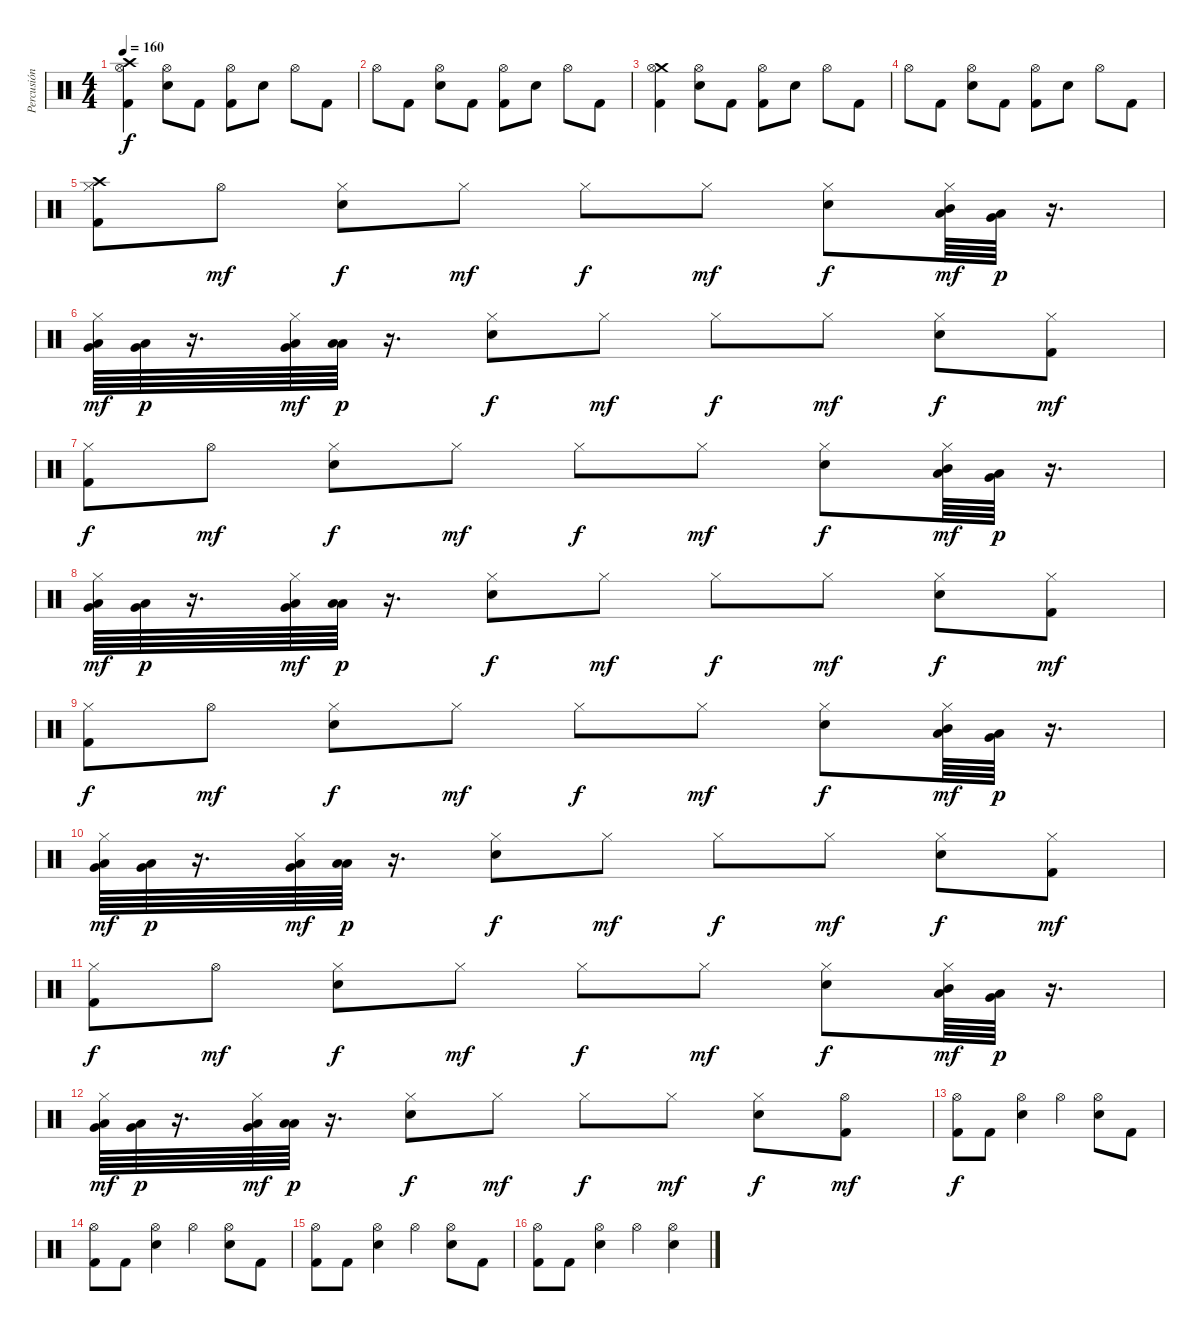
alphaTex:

\track ("Percusión" "Percusión") {instrument percussion}
\staff {score}
\articulation defaults
\ts (4 4)
\tempo 160
\clef neutral
\ks c
("Crash high (hit)" "Hi-Hat (open)" "Kick (hit) 2").4{dy f} ("Hi-Hat (open)" "Electric Snare (hit)").8 "Kick (hit) 2".8 ("Hi-Hat (open)" "Kick (hit) 2").8 "Electric Snare (hit)".8 "Hi-Hat (open)".8 "Kick (hit) 2".8 |
"Hi-Hat (open)".8 "Kick (hit) 2".8 ("Hi-Hat (open)" "Electric Snare (hit)").8 "Kick (hit) 2".8 ("Hi-Hat (open)" "Kick (hit) 2").8 "Electric Snare (hit)".8 "Hi-Hat (open)".8 "Kick (hit) 2".8 |
("Crash medium (hit)" "Hi-Hat (open)" "Kick (hit) 2").4 ("Hi-Hat (open)" "Electric Snare (hit)").8 "Kick (hit) 2".8 ("Hi-Hat (open)" "Kick (hit) 2").8 "Electric Snare (hit)".8 "Hi-Hat (open)".8 "Kick (hit) 2".8 |
"Hi-Hat (open)".8 "Kick (hit) 2".8 ("Hi-Hat (open)" "Electric Snare (hit)").8 "Kick (hit) 2".8 ("Hi-Hat (open)" "Kick (hit) 2").8 "Electric Snare (hit)".8 "Hi-Hat (open)".8 "Kick (hit) 2".8 |
("Crash high (hit)" "Hi-Hat (closed)" "Kick (hit) 2").8 "Hi-Hat (open)".8{dy mf} ("Hi-Hat (closed)" "Electric Snare (hit)").8{dy f} "Hi-Hat (closed)".8{dy mf} "Hi-Hat (closed)".8{dy f} "Hi-Hat (closed)".8{dy mf} ("Hi-Hat (closed)" "Electric Snare (hit)").8{dy f} ("Hi-Hat (closed)" "Mid Tom (hit)" "Low Tom (hit)").64{dy mf} ("Low Tom (hit)" "Very Low Tom (hit)").64{dy p} r.16{d} |
("Hi-Hat (closed)" "Low Tom (hit)" "Very Low Tom (hit)").64{dy mf} ("Very Low Tom (hit)" "Low Floor Tom (hit)").64{dy p} r.16{d} ("Hi-Hat (closed)" "Very Low Tom (hit)" "Low Floor Tom (hit)").64{dy mf} ("Low Floor Tom (hit)" "Low Floor Tom (hit)").64{dy p} r.16{d} ("Hi-Hat (closed)" "Electric Snare (hit)").8{dy f} "Hi-Hat (closed)".8{dy mf} "Hi-Hat (closed)".8{dy f} "Hi-Hat (closed)".8{dy mf} ("Hi-Hat (closed)" "Electric Snare (hit)").8{dy f} ("Hi-Hat (closed)" "Kick (hit) 2").8{dy mf} |
("Hi-Hat (closed)" "Kick (hit) 2").8{dy f} "Hi-Hat (open)".8{dy mf} ("Hi-Hat (closed)" "Electric Snare (hit)").8{dy f} "Hi-Hat (closed)".8{dy mf} "Hi-Hat (closed)".8{dy f} "Hi-Hat (closed)".8{dy mf} ("Hi-Hat (closed)" "Electric Snare (hit)").8{dy f} ("Hi-Hat (closed)" "Mid Tom (hit)" "Low Tom (hit)").64{dy mf} ("Low Tom (hit)" "Very Low Tom (hit)").64{dy p} r.16{d} |
("Hi-Hat (closed)" "Low Tom (hit)" "Very Low Tom (hit)").64{dy mf} ("Very Low Tom (hit)" "Low Floor Tom (hit)").64{dy p} r.16{d} ("Hi-Hat (closed)" "Very Low Tom (hit)" "Low Floor Tom (hit)").64{dy mf} ("Low Floor Tom (hit)" "Low Floor Tom (hit)").64{dy p} r.16{d} ("Hi-Hat (closed)" "Electric Snare (hit)").8{dy f} "Hi-Hat (closed)".8{dy mf} "Hi-Hat (closed)".8{dy f} "Hi-Hat (closed)".8{dy mf} ("Hi-Hat (closed)" "Electric Snare (hit)").8{dy f} ("Hi-Hat (closed)" "Kick (hit) 2").8{dy mf} |
("Hi-Hat (closed)" "Kick (hit) 2").8{dy f} "Hi-Hat (open)".8{dy mf} ("Hi-Hat (closed)" "Electric Snare (hit)").8{dy f} "Hi-Hat (closed)".8{dy mf} "Hi-Hat (closed)".8{dy f} "Hi-Hat (closed)".8{dy mf} ("Hi-Hat (closed)" "Electric Snare (hit)").8{dy f} ("Hi-Hat (closed)" "Mid Tom (hit)" "Low Tom (hit)").64{dy mf} ("Low Tom (hit)" "Very Low Tom (hit)").64{dy p} r.16{d} |
("Hi-Hat (closed)" "Low Tom (hit)" "Very Low Tom (hit)").64{dy mf} ("Very Low Tom (hit)" "Low Floor Tom (hit)").64{dy p} r.16{d} ("Hi-Hat (closed)" "Very Low Tom (hit)" "Low Floor Tom (hit)").64{dy mf} ("Low Floor Tom (hit)" "Low Floor Tom (hit)").64{dy p} r.16{d} ("Hi-Hat (closed)" "Electric Snare (hit)").8{dy f} "Hi-Hat (closed)".8{dy mf} "Hi-Hat (closed)".8{dy f} "Hi-Hat (closed)".8{dy mf} ("Hi-Hat (closed)" "Electric Snare (hit)").8{dy f} ("Hi-Hat (closed)" "Kick (hit) 2").8{dy mf} |
("Hi-Hat (closed)" "Kick (hit) 2").8{dy f} "Hi-Hat (open)".8{dy mf} ("Hi-Hat (closed)" "Electric Snare (hit)").8{dy f} "Hi-Hat (closed)".8{dy mf} "Hi-Hat (closed)".8{dy f} "Hi-Hat (closed)".8{dy mf} ("Hi-Hat (closed)" "Electric Snare (hit)").8{dy f} ("Hi-Hat (closed)" "Mid Tom (hit)" "Low Tom (hit)").64{dy mf} ("Low Tom (hit)" "Very Low Tom (hit)").64{dy p} r.16{d} |
("Hi-Hat (closed)" "Low Tom (hit)" "Very Low Tom (hit)").64{dy mf} ("Very Low Tom (hit)" "Low Floor Tom (hit)").64{dy p} r.16{d} ("Hi-Hat (closed)" "Very Low Tom (hit)" "Low Floor Tom (hit)").64{dy mf} ("Low Floor Tom (hit)" "Low Floor Tom (hit)").64{dy p} r.16{d} ("Hi-Hat (closed)" "Electric Snare (hit)").8{dy f} "Hi-Hat (closed)".8{dy mf} "Hi-Hat (closed)".8{dy f} "Hi-Hat (closed)".8{dy mf} ("Hi-Hat (closed)" "Electric Snare (hit)").8{dy f} ("Hi-Hat (open)" "Kick (hit) 2").8{dy mf} |
("Hi-Hat (open)" "Kick (hit) 2").8{dy f} "Kick (hit) 2".8 ("Hi-Hat (open)" "Electric Snare (hit)").4 "Hi-Hat (open)".4 ("Hi-Hat (open)" "Electric Snare (hit)").8 "Kick (hit) 2".8 |
("Hi-Hat (open)" "Kick (hit) 2").8 "Kick (hit) 2".8 ("Hi-Hat (open)" "Electric Snare (hit)").4 "Hi-Hat (open)".4 ("Hi-Hat (open)" "Electric Snare (hit)").8 "Kick (hit) 2".8 |
("Hi-Hat (open)" "Kick (hit) 2").8 "Kick (hit) 2".8 ("Hi-Hat (open)" "Electric Snare (hit)").4 "Hi-Hat (open)".4 ("Hi-Hat (open)" "Electric Snare (hit)").8 "Kick (hit) 2".8 |
("Hi-Hat (open)" "Kick (hit) 2").8 "Kick (hit) 2".8 ("Hi-Hat (open)" "Electric Snare (hit)").4 "Hi-Hat (open)".4 ("Hi-Hat (open)" "Electric Snare (hit)").4
